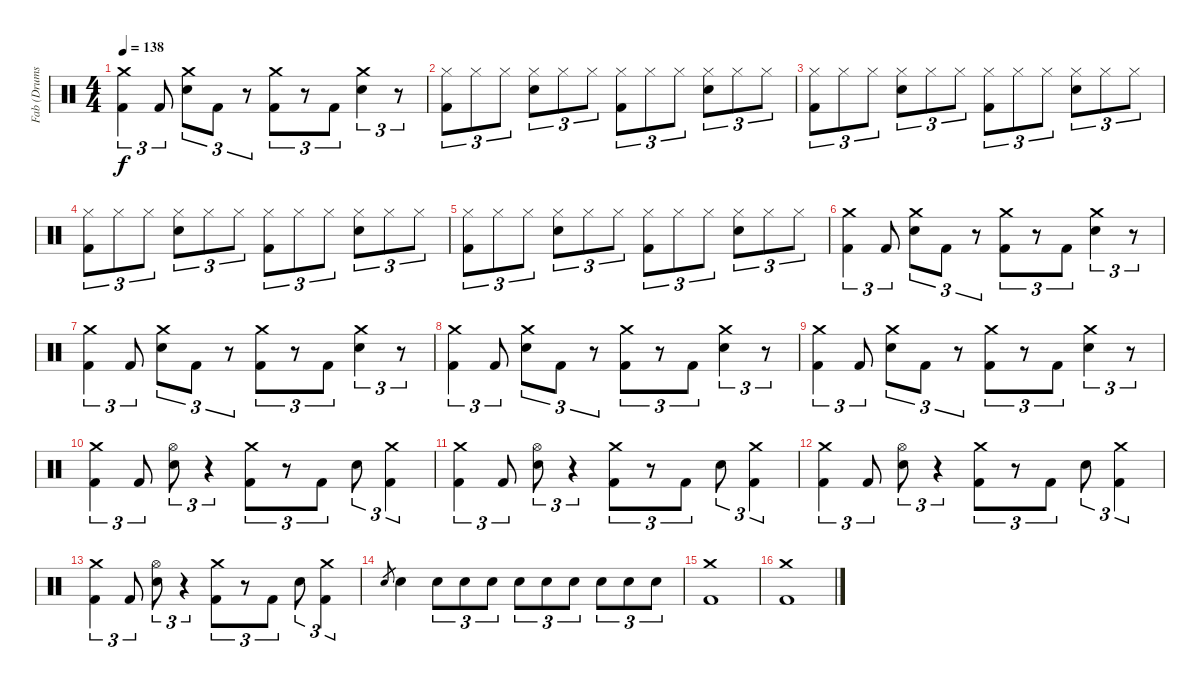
\track ("Fab (Drums)" "Fab (Drums") {instrument percussion}
\staff {score}
\articulation defaults
\ts (4 4)
\tempo 138
\clef neutral
\ks c
("Crash medium (hit)" "Kick (hit) 2").4{tu (3 2) dy f} "Kick (hit) 2".8{tu (3 2)} ("Crash medium (hit)" "Electric Snare (hit)").8{tu (3 2)} "Kick (hit) 2".8{tu (3 2)} r.8{tu (3 2)} ("Crash medium (hit)" "Kick (hit) 2").8{tu (3 2)} r.8{tu (3 2)} "Kick (hit) 2".8{tu (3 2)} ("Crash medium (hit)" "Electric Snare (hit)").4{tu (3 2)} r.8{tu (3 2)} |
("Hi-Hat (closed)" "Kick (hit) 2").8{tu (3 2)} "Hi-Hat (closed)".8{tu (3 2)} "Hi-Hat (closed)".8{tu (3 2)} ("Hi-Hat (closed)" "Electric Snare (hit)").8{tu (3 2)} "Hi-Hat (closed)".8{tu (3 2)} "Hi-Hat (closed)".8{tu (3 2)} ("Hi-Hat (closed)" "Kick (hit) 2").8{tu (3 2)} "Hi-Hat (closed)".8{tu (3 2)} "Hi-Hat (closed)".8{tu (3 2)} ("Hi-Hat (closed)" "Electric Snare (hit)").8{tu (3 2)} "Hi-Hat (closed)".8{tu (3 2)} "Hi-Hat (closed)".8{tu (3 2)} |
("Hi-Hat (closed)" "Kick (hit) 2").8{tu (3 2)} "Hi-Hat (closed)".8{tu (3 2)} "Hi-Hat (closed)".8{tu (3 2)} ("Hi-Hat (closed)" "Electric Snare (hit)").8{tu (3 2)} "Hi-Hat (closed)".8{tu (3 2)} "Hi-Hat (closed)".8{tu (3 2)} ("Hi-Hat (closed)" "Kick (hit) 2").8{tu (3 2)} "Hi-Hat (closed)".8{tu (3 2)} "Hi-Hat (closed)".8{tu (3 2)} ("Hi-Hat (closed)" "Electric Snare (hit)").8{tu (3 2)} "Hi-Hat (closed)".8{tu (3 2)} "Hi-Hat (closed)".8{tu (3 2)} |
("Hi-Hat (closed)" "Kick (hit) 2").8{tu (3 2)} "Hi-Hat (closed)".8{tu (3 2)} "Hi-Hat (closed)".8{tu (3 2)} ("Hi-Hat (closed)" "Electric Snare (hit)").8{tu (3 2)} "Hi-Hat (closed)".8{tu (3 2)} "Hi-Hat (closed)".8{tu (3 2)} ("Hi-Hat (closed)" "Kick (hit) 2").8{tu (3 2)} "Hi-Hat (closed)".8{tu (3 2)} "Hi-Hat (closed)".8{tu (3 2)} ("Hi-Hat (closed)" "Electric Snare (hit)").8{tu (3 2)} "Hi-Hat (closed)".8{tu (3 2)} "Hi-Hat (closed)".8{tu (3 2)} |
("Hi-Hat (closed)" "Kick (hit) 2").8{tu (3 2)} "Hi-Hat (closed)".8{tu (3 2)} "Hi-Hat (closed)".8{tu (3 2)} ("Hi-Hat (closed)" "Electric Snare (hit)").8{tu (3 2)} "Hi-Hat (closed)".8{tu (3 2)} "Hi-Hat (closed)".8{tu (3 2)} ("Hi-Hat (closed)" "Kick (hit) 2").8{tu (3 2)} "Hi-Hat (closed)".8{tu (3 2)} "Hi-Hat (closed)".8{tu (3 2)} ("Hi-Hat (closed)" "Electric Snare (hit)").8{tu (3 2)} "Hi-Hat (closed)".8{tu (3 2)} "Hi-Hat (closed)".8{tu (3 2)} |
("Crash medium (hit)" "Kick (hit) 2").4{tu (3 2)} "Kick (hit) 2".8{tu (3 2)} ("Crash medium (hit)" "Electric Snare (hit)").8{tu (3 2)} "Kick (hit) 2".8{tu (3 2)} r.8{tu (3 2)} ("Crash medium (hit)" "Kick (hit) 2").8{tu (3 2)} r.8{tu (3 2)} "Kick (hit) 2".8{tu (3 2)} ("Crash medium (hit)" "Electric Snare (hit)").4{tu (3 2)} r.8{tu (3 2)} |
("Crash medium (hit)" "Kick (hit) 2").4{tu (3 2)} "Kick (hit) 2".8{tu (3 2)} ("Crash medium (hit)" "Electric Snare (hit)").8{tu (3 2)} "Kick (hit) 2".8{tu (3 2)} r.8{tu (3 2)} ("Crash medium (hit)" "Kick (hit) 2").8{tu (3 2)} r.8{tu (3 2)} "Kick (hit) 2".8{tu (3 2)} ("Crash medium (hit)" "Electric Snare (hit)").4{tu (3 2)} r.8{tu (3 2)} |
("Crash medium (hit)" "Kick (hit) 2").4{tu (3 2)} "Kick (hit) 2".8{tu (3 2)} ("Crash medium (hit)" "Electric Snare (hit)").8{tu (3 2)} "Kick (hit) 2".8{tu (3 2)} r.8{tu (3 2)} ("Crash medium (hit)" "Kick (hit) 2").8{tu (3 2)} r.8{tu (3 2)} "Kick (hit) 2".8{tu (3 2)} ("Crash medium (hit)" "Electric Snare (hit)").4{tu (3 2)} r.8{tu (3 2)} |
("Crash medium (hit)" "Kick (hit) 2").4{tu (3 2)} "Kick (hit) 2".8{tu (3 2)} ("Crash medium (hit)" "Electric Snare (hit)").8{tu (3 2)} "Kick (hit) 2".8{tu (3 2)} r.8{tu (3 2)} ("Crash medium (hit)" "Kick (hit) 2").8{tu (3 2)} r.8{tu (3 2)} "Kick (hit) 2".8{tu (3 2)} ("Crash medium (hit)" "Electric Snare (hit)").4{tu (3 2)} r.8{tu (3 2)} |
("Crash medium (hit)" "Kick (hit) 2").4{tu (3 2)} "Kick (hit) 2".8{tu (3 2)} ("Hi-Hat (open)" "Electric Snare (hit)").8{tu (3 2)} r.4{tu (3 2)} ("Crash medium (hit)" "Kick (hit) 2").8{tu (3 2)} r.8{tu (3 2)} "Kick (hit) 2".8{tu (3 2)} "Electric Snare (hit)".8{tu (3 2)} ("Crash medium (hit)" "Kick (hit) 2").4{tu (3 2)} |
("Crash medium (hit)" "Kick (hit) 2").4{tu (3 2)} "Kick (hit) 2".8{tu (3 2)} ("Hi-Hat (open)" "Electric Snare (hit)").8{tu (3 2)} r.4{tu (3 2)} ("Crash medium (hit)" "Kick (hit) 2").8{tu (3 2)} r.8{tu (3 2)} "Kick (hit) 2".8{tu (3 2)} "Electric Snare (hit)".8{tu (3 2)} ("Crash medium (hit)" "Kick (hit) 2").4{tu (3 2)} |
("Crash medium (hit)" "Kick (hit) 2").4{tu (3 2)} "Kick (hit) 2".8{tu (3 2)} ("Hi-Hat (open)" "Electric Snare (hit)").8{tu (3 2)} r.4{tu (3 2)} ("Crash medium (hit)" "Kick (hit) 2").8{tu (3 2)} r.8{tu (3 2)} "Kick (hit) 2".8{tu (3 2)} "Electric Snare (hit)".8{tu (3 2)} ("Crash medium (hit)" "Kick (hit) 2").4{tu (3 2)} |
("Crash medium (hit)" "Kick (hit) 2").4{tu (3 2)} "Kick (hit) 2".8{tu (3 2)} ("Hi-Hat (open)" "Electric Snare (hit)").8{tu (3 2)} r.4{tu (3 2)} ("Crash medium (hit)" "Kick (hit) 2").8{tu (3 2)} r.8{tu (3 2)} "Kick (hit) 2".8{tu (3 2)} "Electric Snare (hit)".8{tu (3 2)} ("Crash medium (hit)" "Kick (hit) 2").4{tu (3 2)} |
"Electric Snare (hit)".8{gr} "Electric Snare (hit)".4 "Electric Snare (hit)".8{tu (3 2)} "Electric Snare (hit)".8{tu (3 2)} "Electric Snare (hit)".8{tu (3 2)} "Electric Snare (hit)".8{tu (3 2)} "Electric Snare (hit)".8{tu (3 2)} "Electric Snare (hit)".8{tu (3 2)} "Electric Snare (hit)".8{tu (3 2)} "Electric Snare (hit)".8{tu (3 2)} "Electric Snare (hit)".8{tu (3 2)} |
("Crash medium (hit)" "Kick (hit) 2").1 |
("Crash medium (hit)" "Kick (hit) 2").1
